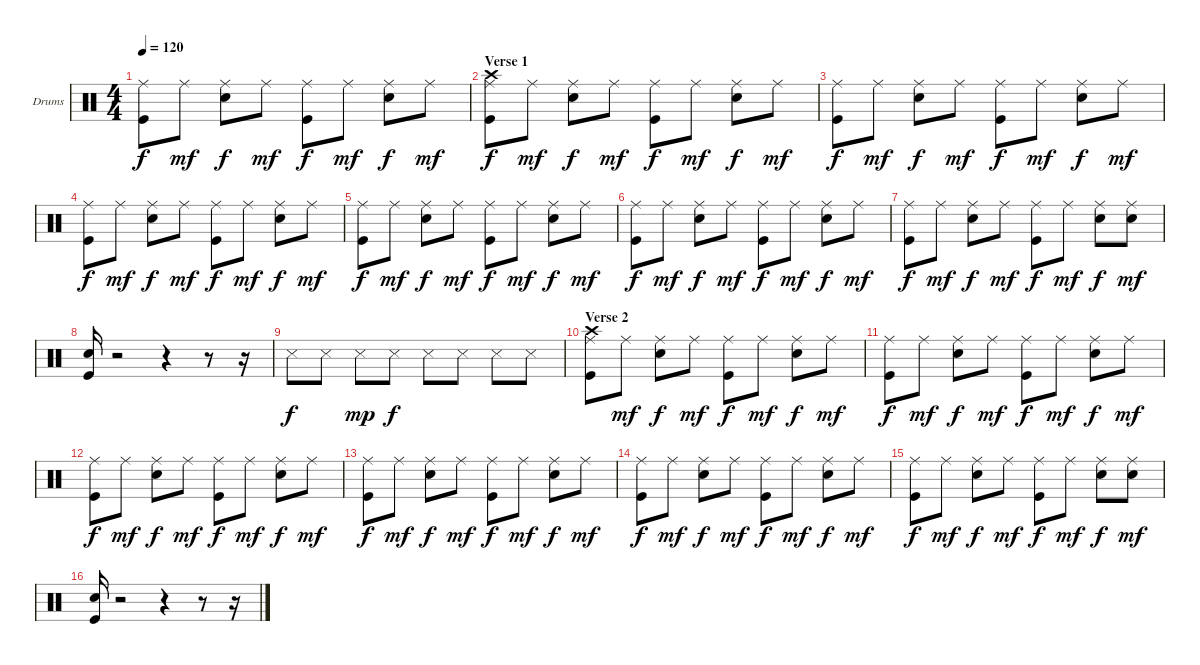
\bracketExtendMode groupsimilarinstruments
\firstSystemTrackNameOrientation horizontal
\otherSystemsTrackNameOrientation horizontal
\chordDiagramsInScore
\track ("Drumkit" "Drums") {instrument percussion}
\staff {score}
\articulation defaults
\ts (4 4)
\tempo 120
\clef neutral
\ks c
("Ride (middle)" "Kick (hit)").8{dy f} "Ride (middle)".8{dy mf} ("Ride (middle)" "Snare (hit) 2").8{dy f} "Ride (middle)".8{dy mf} ("Ride (middle)" "Kick (hit)").8{dy f} "Ride (middle)".8{dy mf} ("Ride (middle)" "Snare (hit) 2").8{dy f} "Ride (middle)".8{dy mf} |
\section ("" "Verse 1")
("Ride (middle)" "Crash high (hit)" "Kick (hit)").8{dy f} "Ride (middle)".8{dy mf} ("Ride (middle)" "Snare (hit) 2").8{dy f} "Ride (middle)".8{dy mf} ("Ride (middle)" "Kick (hit)").8{dy f} "Ride (middle)".8{dy mf} ("Ride (middle)" "Snare (hit) 2").8{dy f} "Ride (middle)".8{dy mf} |
("Ride (middle)" "Kick (hit)").8{dy f} "Ride (middle)".8{dy mf} ("Ride (middle)" "Snare (hit) 2").8{dy f} "Ride (middle)".8{dy mf} ("Ride (middle)" "Kick (hit)").8{dy f} "Ride (middle)".8{dy mf} ("Ride (middle)" "Snare (hit) 2").8{dy f} "Ride (middle)".8{dy mf} |
("Ride (middle)" "Kick (hit)").8{dy f} "Ride (middle)".8{dy mf} ("Ride (middle)" "Snare (hit) 2").8{dy f} "Ride (middle)".8{dy mf} ("Ride (middle)" "Kick (hit)").8{dy f} "Ride (middle)".8{dy mf} ("Ride (middle)" "Snare (hit) 2").8{dy f} "Ride (middle)".8{dy mf} |
("Ride (middle)" "Kick (hit)").8{dy f} "Ride (middle)".8{dy mf} ("Ride (middle)" "Snare (hit) 2").8{dy f} "Ride (middle)".8{dy mf} ("Ride (middle)" "Kick (hit)").8{dy f} "Ride (middle)".8{dy mf} ("Ride (middle)" "Snare (hit) 2").8{dy f} "Ride (middle)".8{dy mf} |
("Ride (middle)" "Kick (hit)").8{dy f} "Ride (middle)".8{dy mf} ("Ride (middle)" "Snare (hit) 2").8{dy f} "Ride (middle)".8{dy mf} ("Ride (middle)" "Kick (hit)").8{dy f} "Ride (middle)".8{dy mf} ("Ride (middle)" "Snare (hit) 2").8{dy f} "Ride (middle)".8{dy mf} |
("Ride (middle)" "Kick (hit)").8{dy f} "Ride (middle)".8{dy mf} ("Ride (middle)" "Snare (hit) 2").8{dy f} "Ride (middle)".8{dy mf} ("Ride (middle)" "Kick (hit)").8{dy f} "Ride (middle)".8{dy mf} ("Ride (middle)" "Snare (hit) 2").8{dy f} ("Ride (middle)" "Snare (hit) 2").8{dy mf} |
("Snare (hit) 2" "Kick (hit)").16 r.2 r.4 r.8 r.16 |
"Snare (side stick) 3".8{dy f} "Snare (side stick) 3".8 "Snare (side stick) 3".8{dy mp} "Snare (side stick) 3".8{dy f} "Snare (side stick) 3".8 "Snare (side stick) 3".8 "Snare (side stick) 3".8 "Snare (side stick) 3".8 |
\section ("" "Verse 2")
("Ride (middle)" "Crash high (hit)" "Kick (hit)").8 "Ride (middle)".8{dy mf} ("Ride (middle)" "Snare (hit) 2").8{dy f} "Ride (middle)".8{dy mf} ("Ride (middle)" "Kick (hit)").8{dy f} "Ride (middle)".8{dy mf} ("Ride (middle)" "Snare (hit) 2").8{dy f} "Ride (middle)".8{dy mf} |
("Ride (middle)" "Kick (hit)").8{dy f} "Ride (middle)".8{dy mf} ("Ride (middle)" "Snare (hit) 2").8{dy f} "Ride (middle)".8{dy mf} ("Ride (middle)" "Kick (hit)").8{dy f} "Ride (middle)".8{dy mf} ("Ride (middle)" "Snare (hit) 2").8{dy f} "Ride (middle)".8{dy mf} |
("Ride (middle)" "Kick (hit)").8{dy f} "Ride (middle)".8{dy mf} ("Ride (middle)" "Snare (hit) 2").8{dy f} "Ride (middle)".8{dy mf} ("Ride (middle)" "Kick (hit)").8{dy f} "Ride (middle)".8{dy mf} ("Ride (middle)" "Snare (hit) 2").8{dy f} "Ride (middle)".8{dy mf} |
("Ride (middle)" "Kick (hit)").8{dy f} "Ride (middle)".8{dy mf} ("Ride (middle)" "Snare (hit) 2").8{dy f} "Ride (middle)".8{dy mf} ("Ride (middle)" "Kick (hit)").8{dy f} "Ride (middle)".8{dy mf} ("Ride (middle)" "Snare (hit) 2").8{dy f} "Ride (middle)".8{dy mf} |
("Ride (middle)" "Kick (hit)").8{dy f} "Ride (middle)".8{dy mf} ("Ride (middle)" "Snare (hit) 2").8{dy f} "Ride (middle)".8{dy mf} ("Ride (middle)" "Kick (hit)").8{dy f} "Ride (middle)".8{dy mf} ("Ride (middle)" "Snare (hit) 2").8{dy f} "Ride (middle)".8{dy mf} |
("Ride (middle)" "Kick (hit)").8{dy f} "Ride (middle)".8{dy mf} ("Ride (middle)" "Snare (hit) 2").8{dy f} "Ride (middle)".8{dy mf} ("Ride (middle)" "Kick (hit)").8{dy f} "Ride (middle)".8{dy mf} ("Ride (middle)" "Snare (hit) 2").8{dy f} ("Ride (middle)" "Snare (hit) 2").8{dy mf} |
("Snare (hit) 2" "Kick (hit)").16 r.2 r.4 r.8 r.16
